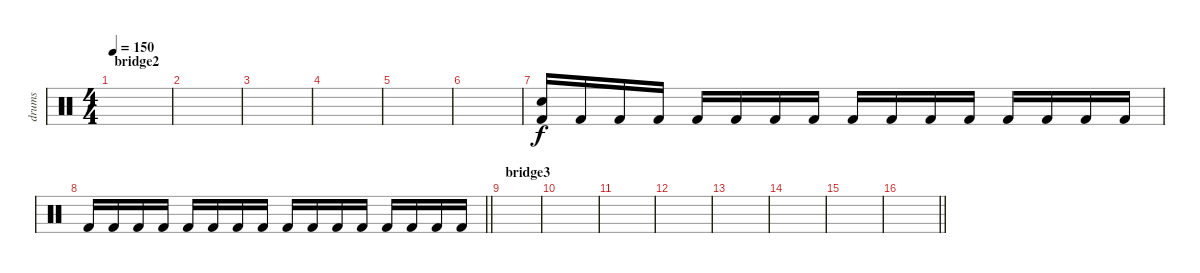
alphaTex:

\track ("drums" "drums") {instrument percussion}
\staff {score}
\articulation defaults
\ts (4 4)
\section ("" "bridge2")
\tempo 150
\clef neutral
\ks c
|
|
|
|
|
|
("Snare (hit) 2" "Kick (hit) 2").16 "Kick (hit) 2".16 "Kick (hit) 2".16 "Kick (hit) 2".16 "Kick (hit) 2".16 "Kick (hit) 2".16 "Kick (hit) 2".16 "Kick (hit) 2".16 "Kick (hit) 2".16 "Kick (hit) 2".16 "Kick (hit) 2".16 "Kick (hit) 2".16 "Kick (hit) 2".16 "Kick (hit) 2".16 "Kick (hit) 2".16 "Kick (hit) 2".16 |
\barLineRight lightlight "Kick (hit) 2".16 "Kick (hit) 2".16 "Kick (hit) 2".16 "Kick (hit) 2".16 "Kick (hit) 2".16 "Kick (hit) 2".16 "Kick (hit) 2".16 "Kick (hit) 2".16 "Kick (hit) 2".16 "Kick (hit) 2".16 "Kick (hit) 2".16 "Kick (hit) 2".16 "Kick (hit) 2".16 "Kick (hit) 2".16 "Kick (hit) 2".16 "Kick (hit) 2".16
|
\section ("" "bridge3")
|
|
|
|
|
|
|
\barLineRight lightlight
